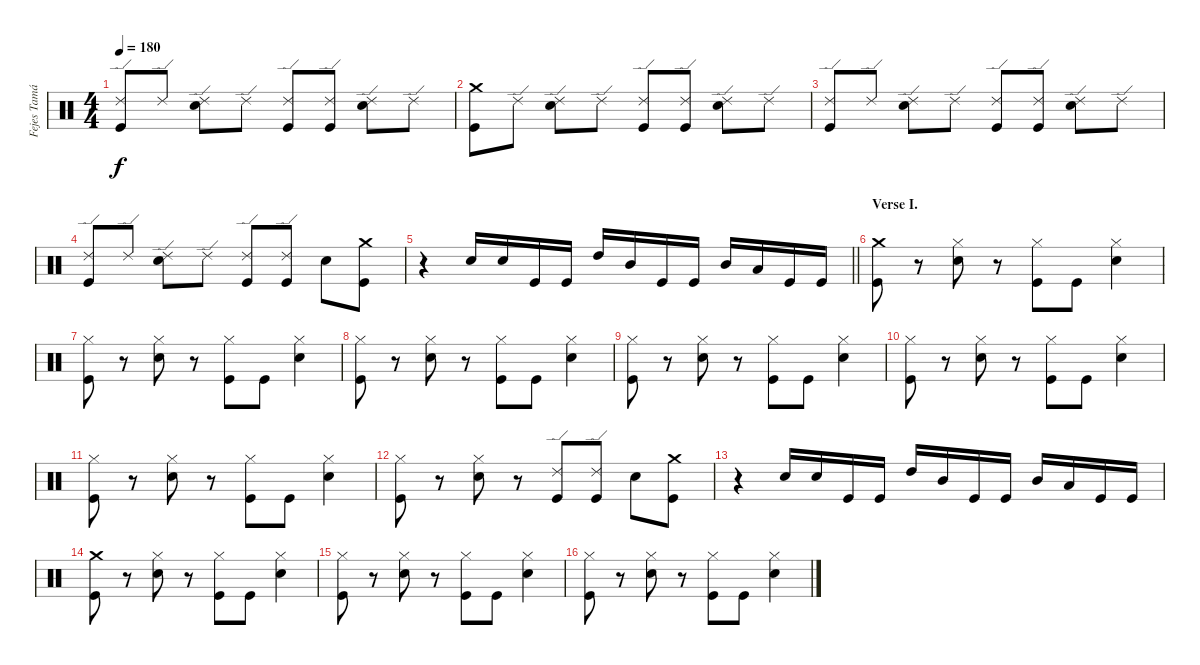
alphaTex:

\track ("Fejes Tamás - Dob" "Fejes Tamá") {instrument percussion}
\staff {score}
\articulation defaults
\ts (4 4)
\tempo 180
\clef neutral
\ks c
("Ride (edge) 2" "Kick (hit)").8{dy f} "Ride (edge) 2".8 ("Ride (edge) 2" "Electric Snare (hit)").8 "Ride (edge) 2".8 ("Ride (edge) 2" "Kick (hit)").8 ("Ride (edge) 2" "Kick (hit)").8 ("Ride (edge) 2" "Electric Snare (hit)").8 "Ride (edge) 2".8 |
("Crash medium (hit)" "Kick (hit)").8 "Ride (edge) 2".8 ("Ride (edge) 2" "Electric Snare (hit)").8 "Ride (edge) 2".8 ("Ride (edge) 2" "Kick (hit)").8 ("Ride (edge) 2" "Kick (hit)").8 ("Ride (edge) 2" "Electric Snare (hit)").8 "Ride (edge) 2".8 |
("Ride (edge) 2" "Kick (hit)").8 "Ride (edge) 2".8 ("Ride (edge) 2" "Electric Snare (hit)").8 "Ride (edge) 2".8 ("Ride (edge) 2" "Kick (hit)").8 ("Ride (edge) 2" "Kick (hit)").8 ("Ride (edge) 2" "Electric Snare (hit)").8 "Ride (edge) 2".8 |
("Ride (edge) 2" "Kick (hit)").8 "Ride (edge) 2".8 ("Ride (edge) 2" "Electric Snare (hit)").8 "Ride (edge) 2".8 ("Ride (edge) 2" "Kick (hit)").8 ("Ride (edge) 2" "Kick (hit)").8 "Electric Snare (hit)".8 ("Crash medium (hit)" "Kick (hit)").8 |
\barLineRight lightlight
r.4 "Electric Snare (hit)".16 "Electric Snare (hit)".16 "Kick (hit)".16 "Kick (hit)".16 "High Tom (hit)".16 "Mid Tom (hit)".16 "Kick (hit)".16 "Kick (hit)".16 "Mid Tom (hit)".16 "Low Tom (hit)".16 "Kick (hit)".16 "Kick (hit)".16 |
\section ("" "Verse I.")
("Crash medium (hit)" "Kick (hit)").8 r.8 ("Hi-Hat (closed)" "Electric Snare (hit)").8 r.8 ("Hi-Hat (closed)" "Kick (hit)").8 "Kick (hit)".8 ("Hi-Hat (closed)" "Electric Snare (hit)").4 |
("Hi-Hat (closed)" "Kick (hit)").8 r.8 ("Hi-Hat (closed)" "Electric Snare (hit)").8 r.8 ("Hi-Hat (closed)" "Kick (hit)").8 "Kick (hit)".8 ("Hi-Hat (closed)" "Electric Snare (hit)").4 |
("Hi-Hat (closed)" "Kick (hit)").8 r.8 ("Hi-Hat (closed)" "Electric Snare (hit)").8 r.8 ("Hi-Hat (closed)" "Kick (hit)").8 "Kick (hit)".8 ("Hi-Hat (closed)" "Electric Snare (hit)").4 |
("Hi-Hat (closed)" "Kick (hit)").8 r.8 ("Hi-Hat (closed)" "Electric Snare (hit)").8 r.8 ("Hi-Hat (closed)" "Kick (hit)").8 "Kick (hit)".8 ("Hi-Hat (closed)" "Electric Snare (hit)").4 |
("Hi-Hat (closed)" "Kick (hit)").8 r.8 ("Hi-Hat (closed)" "Electric Snare (hit)").8 r.8 ("Hi-Hat (closed)" "Kick (hit)").8 "Kick (hit)".8 ("Hi-Hat (closed)" "Electric Snare (hit)").4 |
("Hi-Hat (closed)" "Kick (hit)").8 r.8 ("Hi-Hat (closed)" "Electric Snare (hit)").8 r.8 ("Hi-Hat (closed)" "Kick (hit)").8 "Kick (hit)".8 ("Hi-Hat (closed)" "Electric Snare (hit)").4 |
("Hi-Hat (closed)" "Kick (hit)").8 r.8 ("Hi-Hat (closed)" "Electric Snare (hit)").8 r.8 ("Ride (edge) 2" "Kick (hit)").8 ("Ride (edge) 2" "Kick (hit)").8 "Electric Snare (hit)".8 ("Crash medium (hit)" "Kick (hit)").8 |
r.4 "Electric Snare (hit)".16 "Electric Snare (hit)".16 "Kick (hit)".16 "Kick (hit)".16 "High Tom (hit)".16 "Mid Tom (hit)".16 "Kick (hit)".16 "Kick (hit)".16 "Mid Tom (hit)".16 "Low Tom (hit)".16 "Kick (hit)".16 "Kick (hit)".16 |
("Crash medium (hit)" "Kick (hit)").8 r.8 ("Hi-Hat (closed)" "Electric Snare (hit)").8 r.8 ("Hi-Hat (closed)" "Kick (hit)").8 "Kick (hit)".8 ("Hi-Hat (closed)" "Electric Snare (hit)").4 |
("Hi-Hat (closed)" "Kick (hit)").8 r.8 ("Hi-Hat (closed)" "Electric Snare (hit)").8 r.8 ("Hi-Hat (closed)" "Kick (hit)").8 "Kick (hit)".8 ("Hi-Hat (closed)" "Electric Snare (hit)").4 |
("Hi-Hat (closed)" "Kick (hit)").8 r.8 ("Hi-Hat (closed)" "Electric Snare (hit)").8 r.8 ("Hi-Hat (closed)" "Kick (hit)").8 "Kick (hit)".8 ("Hi-Hat (closed)" "Electric Snare (hit)").4
